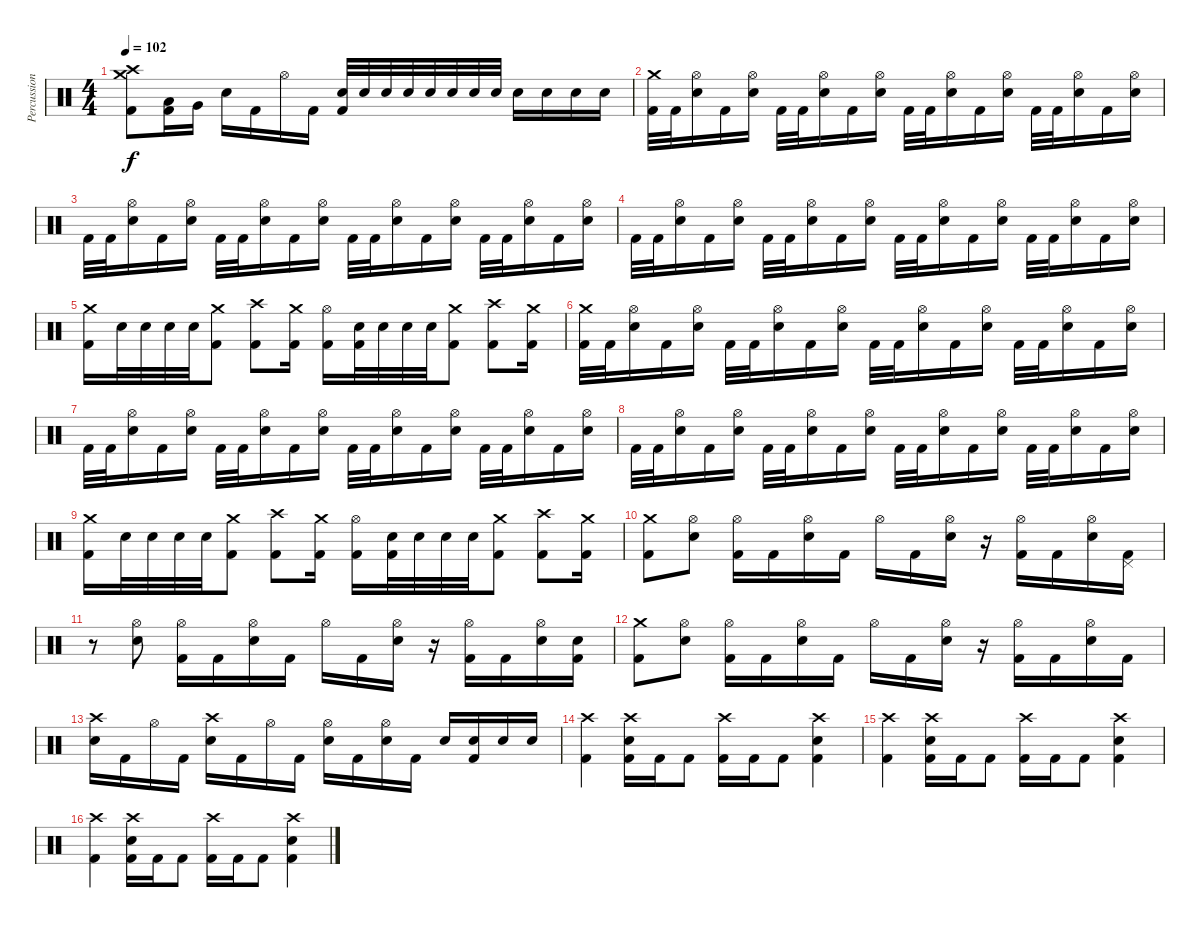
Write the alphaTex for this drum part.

\track ("Percussion" "Percussion") {instrument percussion}
\staff {score}
\articulation defaults
\ts (4 4)
\tempo 102
\clef neutral
\ks c
("Crash medium (hit)" "Crash high (hit)" "Kick (hit) 2").8{dy f} ("Low Tom (hit)" "Kick (hit) 2").16 "Very Low Tom (hit)".16 "Electric Snare (hit)".16 "Kick (hit) 2".16 "Hi-Hat (open)".16 "Kick (hit) 2".16 ("Electric Snare (hit)" "Kick (hit) 2").32 "Electric Snare (hit)".32 "Electric Snare (hit)".32 "Electric Snare (hit)".32 "Electric Snare (hit)".32 "Electric Snare (hit)".32 "Electric Snare (hit)".32 "Electric Snare (hit)".32 "Electric Snare (hit)".16 "Electric Snare (hit)".16 "Electric Snare (hit)".16 "Electric Snare (hit)".16 |
("Crash medium (hit)" "Kick (hit) 2").32 "Kick (hit) 2".32 ("Hi-Hat (open)" "Electric Snare (hit)").16 "Kick (hit) 2".16 ("Hi-Hat (open)" "Electric Snare (hit)").16 "Kick (hit) 2".32 "Kick (hit) 2".32 ("Hi-Hat (open)" "Electric Snare (hit)").16 "Kick (hit) 2".16 ("Hi-Hat (open)" "Electric Snare (hit)").16 "Kick (hit) 2".32 "Kick (hit) 2".32 ("Hi-Hat (open)" "Electric Snare (hit)").16 "Kick (hit) 2".16 ("Hi-Hat (open)" "Electric Snare (hit)").16 "Kick (hit) 2".32 "Kick (hit) 2".32 ("Hi-Hat (open)" "Electric Snare (hit)").16 "Kick (hit) 2".16 ("Hi-Hat (open)" "Electric Snare (hit)").16 |
"Kick (hit) 2".32 "Kick (hit) 2".32 ("Hi-Hat (open)" "Electric Snare (hit)").16 "Kick (hit) 2".16 ("Hi-Hat (open)" "Electric Snare (hit)").16 "Kick (hit) 2".32 "Kick (hit) 2".32 ("Hi-Hat (open)" "Electric Snare (hit)").16 "Kick (hit) 2".16 ("Hi-Hat (open)" "Electric Snare (hit)").16 "Kick (hit) 2".32 "Kick (hit) 2".32 ("Hi-Hat (open)" "Electric Snare (hit)").16 "Kick (hit) 2".16 ("Hi-Hat (open)" "Electric Snare (hit)").16 "Kick (hit) 2".32 "Kick (hit) 2".32 ("Hi-Hat (open)" "Electric Snare (hit)").16 "Kick (hit) 2".16 ("Hi-Hat (open)" "Electric Snare (hit)").16 |
"Kick (hit) 2".32 "Kick (hit) 2".32 ("Hi-Hat (open)" "Electric Snare (hit)").16 "Kick (hit) 2".16 ("Hi-Hat (open)" "Electric Snare (hit)").16 "Kick (hit) 2".32 "Kick (hit) 2".32 ("Hi-Hat (open)" "Electric Snare (hit)").16 "Kick (hit) 2".16 ("Hi-Hat (open)" "Electric Snare (hit)").16 "Kick (hit) 2".32 "Kick (hit) 2".32 ("Hi-Hat (open)" "Electric Snare (hit)").16 "Kick (hit) 2".16 ("Hi-Hat (open)" "Electric Snare (hit)").16 "Kick (hit) 2".32 "Kick (hit) 2".32 ("Hi-Hat (open)" "Electric Snare (hit)").16 "Kick (hit) 2".16 ("Hi-Hat (open)" "Electric Snare (hit)").16 |
("Crash medium (hit)" "Kick (hit) 2").16 "Electric Snare (hit)".32 "Electric Snare (hit)".32 "Electric Snare (hit)".32 "Electric Snare (hit)".32 ("Crash medium (hit)" "Kick (hit) 2").8 ("Crash high (hit)" "Kick (hit) 2").8 ("Crash medium (hit)" "Kick (hit) 2").16 ("Hi-Hat (open)" "Kick (hit) 2").16 ("Electric Snare (hit)" "Kick (hit) 2").32 "Electric Snare (hit)".32 "Electric Snare (hit)".32 "Electric Snare (hit)".32 ("Crash medium (hit)" "Kick (hit) 2").8 ("Crash high (hit)" "Kick (hit) 2").8 ("Crash medium (hit)" "Kick (hit) 2").16 |
("Crash medium (hit)" "Kick (hit) 2").32 "Kick (hit) 2".32 ("Hi-Hat (open)" "Electric Snare (hit)").16 "Kick (hit) 2".16 ("Hi-Hat (open)" "Electric Snare (hit)").16 "Kick (hit) 2".32 "Kick (hit) 2".32 ("Hi-Hat (open)" "Electric Snare (hit)").16 "Kick (hit) 2".16 ("Hi-Hat (open)" "Electric Snare (hit)").16 "Kick (hit) 2".32 "Kick (hit) 2".32 ("Hi-Hat (open)" "Electric Snare (hit)").16 "Kick (hit) 2".16 ("Hi-Hat (open)" "Electric Snare (hit)").16 "Kick (hit) 2".32 "Kick (hit) 2".32 ("Hi-Hat (open)" "Electric Snare (hit)").16 "Kick (hit) 2".16 ("Hi-Hat (open)" "Electric Snare (hit)").16 |
"Kick (hit) 2".32 "Kick (hit) 2".32 ("Hi-Hat (open)" "Electric Snare (hit)").16 "Kick (hit) 2".16 ("Hi-Hat (open)" "Electric Snare (hit)").16 "Kick (hit) 2".32 "Kick (hit) 2".32 ("Hi-Hat (open)" "Electric Snare (hit)").16 "Kick (hit) 2".16 ("Hi-Hat (open)" "Electric Snare (hit)").16 "Kick (hit) 2".32 "Kick (hit) 2".32 ("Hi-Hat (open)" "Electric Snare (hit)").16 "Kick (hit) 2".16 ("Hi-Hat (open)" "Electric Snare (hit)").16 "Kick (hit) 2".32 "Kick (hit) 2".32 ("Hi-Hat (open)" "Electric Snare (hit)").16 "Kick (hit) 2".16 ("Hi-Hat (open)" "Electric Snare (hit)").16 |
"Kick (hit) 2".32 "Kick (hit) 2".32 ("Hi-Hat (open)" "Electric Snare (hit)").16 "Kick (hit) 2".16 ("Hi-Hat (open)" "Electric Snare (hit)").16 "Kick (hit) 2".32 "Kick (hit) 2".32 ("Hi-Hat (open)" "Electric Snare (hit)").16 "Kick (hit) 2".16 ("Hi-Hat (open)" "Electric Snare (hit)").16 "Kick (hit) 2".32 "Kick (hit) 2".32 ("Hi-Hat (open)" "Electric Snare (hit)").16 "Kick (hit) 2".16 ("Hi-Hat (open)" "Electric Snare (hit)").16 "Kick (hit) 2".32 "Kick (hit) 2".32 ("Hi-Hat (open)" "Electric Snare (hit)").16 "Kick (hit) 2".16 ("Hi-Hat (open)" "Electric Snare (hit)").16 |
("Crash medium (hit)" "Kick (hit) 2").16 "Electric Snare (hit)".32 "Electric Snare (hit)".32 "Electric Snare (hit)".32 "Electric Snare (hit)".32 ("Crash medium (hit)" "Kick (hit) 2").8 ("Crash high (hit)" "Kick (hit) 2").8 ("Crash medium (hit)" "Kick (hit) 2").16 ("Hi-Hat (open)" "Kick (hit) 2").16 ("Electric Snare (hit)" "Kick (hit) 2").32 "Electric Snare (hit)".32 "Electric Snare (hit)".32 "Electric Snare (hit)".32 ("Crash medium (hit)" "Kick (hit) 2").8 ("Crash high (hit)" "Kick (hit) 2").8 ("Crash medium (hit)" "Kick (hit) 2").16 |
("Crash medium (hit)" "Kick (hit) 2").8 ("Hi-Hat (open)" "Electric Snare (hit)").8 ("Hi-Hat (open)" "Kick (hit) 2").16 "Kick (hit) 2".16 ("Hi-Hat (open)" "Electric Snare (hit)").16 "Kick (hit) 2".16 "Hi-Hat (open)".16 "Kick (hit) 2".16 ("Hi-Hat (open)" "Electric Snare (hit)").16 r.16 ("Hi-Hat (open)" "Kick (hit) 2").16 "Kick (hit) 2".16 ("Hi-Hat (open)" "Electric Snare (hit)").16 ("Pedal Hi-Hat (hit)" "Kick (hit) 2").16 |
r.8 ("Hi-Hat (open)" "Electric Snare (hit)").8 ("Hi-Hat (open)" "Kick (hit) 2").16 "Kick (hit) 2".16 ("Hi-Hat (open)" "Electric Snare (hit)").16 "Kick (hit) 2".16 "Hi-Hat (open)".16 "Kick (hit) 2".16 ("Hi-Hat (open)" "Electric Snare (hit)").16 r.16 ("Hi-Hat (open)" "Kick (hit) 2").16 "Kick (hit) 2".16 ("Hi-Hat (open)" "Electric Snare (hit)").16 ("Electric Snare (hit)" "Kick (hit) 2").16 |
("Crash medium (hit)" "Kick (hit) 2").8 ("Hi-Hat (open)" "Electric Snare (hit)").8 ("Hi-Hat (open)" "Kick (hit) 2").16 "Kick (hit) 2".16 ("Hi-Hat (open)" "Electric Snare (hit)").16 "Kick (hit) 2".16 "Hi-Hat (open)".16 "Kick (hit) 2".16 ("Hi-Hat (open)" "Electric Snare (hit)").16 r.16 ("Hi-Hat (open)" "Kick (hit) 2").16 "Kick (hit) 2".16 ("Hi-Hat (open)" "Electric Snare (hit)").16 "Kick (hit) 2".16 |
("Crash high (hit)" "Electric Snare (hit)").16 "Kick (hit) 2".16 "Hi-Hat (open)".16 "Kick (hit) 2".16 ("Crash high (hit)" "Electric Snare (hit)").16 "Kick (hit) 2".16 "Hi-Hat (open)".16 "Kick (hit) 2".16 ("Hi-Hat (open)" "Electric Snare (hit)").16 "Kick (hit) 2".16 ("Hi-Hat (open)" "Electric Snare (hit)").16 "Kick (hit) 2".16 "Electric Snare (hit)".16 ("Electric Snare (hit)" "Kick (hit) 2").16 "Electric Snare (hit)".16 "Electric Snare (hit)".16 |
("Crash high (hit)" "Kick (hit) 2").4 ("Crash high (hit)" "Electric Snare (hit)" "Kick (hit) 2").16 "Kick (hit) 2".16 "Kick (hit) 2".8 ("Crash high (hit)" "Kick (hit) 2").16 "Kick (hit) 2".16 "Kick (hit) 2".8 ("Crash high (hit)" "Electric Snare (hit)" "Kick (hit) 2").4 |
("Crash high (hit)" "Kick (hit) 2").4 ("Crash high (hit)" "Electric Snare (hit)" "Kick (hit) 2").16 "Kick (hit) 2".16 "Kick (hit) 2".8 ("Crash high (hit)" "Kick (hit) 2").16 "Kick (hit) 2".16 "Kick (hit) 2".8 ("Crash high (hit)" "Electric Snare (hit)" "Kick (hit) 2").4 |
("Crash high (hit)" "Kick (hit) 2").4 ("Crash high (hit)" "Electric Snare (hit)" "Kick (hit) 2").16 "Kick (hit) 2".16 "Kick (hit) 2".8 ("Crash high (hit)" "Kick (hit) 2").16 "Kick (hit) 2".16 "Kick (hit) 2".8 ("Crash high (hit)" "Electric Snare (hit)" "Kick (hit) 2").4
